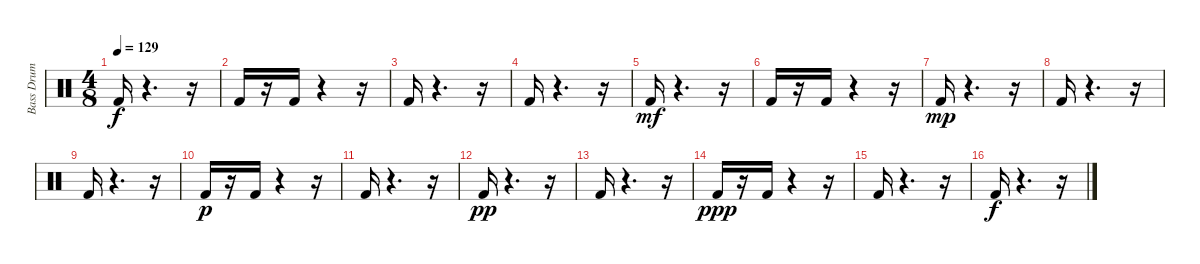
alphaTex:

\track ("Bass Drum" "Bass Drum") {instrument percussion}
\staff {score}
\articulation defaults
\ts (4 8)
\tempo 129
\clef neutral
\ks c "Kick (hit) 2".16{dy f}
r.4{d} r.16 |
"Kick (hit) 2".16 r.16 "Kick (hit) 2".16 r.4 r.16 |
"Kick (hit) 2".16 r.4{d} r.16 |
"Kick (hit) 2".16 r.4{d} r.16 |
"Kick (hit) 2".16{dy mf} r.4{d} r.16 |
"Kick (hit) 2".16 r.16 "Kick (hit) 2".16 r.4 r.16 |
"Kick (hit) 2".16{dy mp} r.4{d} r.16 |
"Kick (hit) 2".16 r.4{d} r.16 |
"Kick (hit) 2".16 r.4{d} r.16 |
"Kick (hit) 2".16{dy p} r.16 "Kick (hit) 2".16 r.4 r.16 |
"Kick (hit) 2".16 r.4{d} r.16 |
"Kick (hit) 2".16{dy pp} r.4{d} r.16 |
"Kick (hit) 2".16 r.4{d} r.16 |
"Kick (hit) 2".16{dy ppp} r.16 "Kick (hit) 2".16 r.4 r.16 |
"Kick (hit) 2".16 r.4{d} r.16 |
"Kick (hit) 2".16{dy f} r.4{d} r.16
